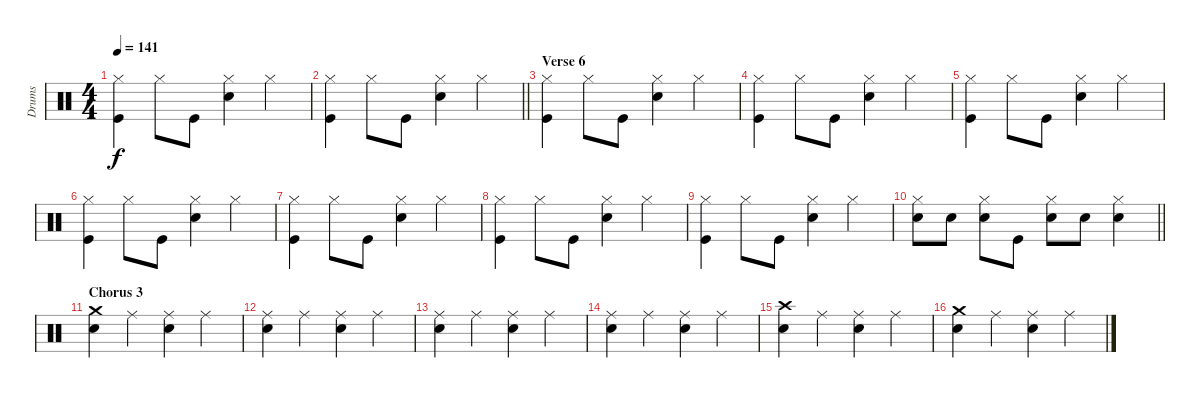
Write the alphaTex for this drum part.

\track ("Drums" "Drums") {instrument percussion}
\staff {score}
\articulation defaults
\ts (4 4)
\tempo 141
\clef neutral
\ks c
("Hi-Hat (closed)" "Kick (hit)").4{dy f} "Hi-Hat (closed)".8 "Kick (hit)".8 ("Hi-Hat (closed)" "Snare (hit) 2").4 "Hi-Hat (closed)".4 |
\barLineRight lightlight
("Hi-Hat (closed)" "Kick (hit)").4 "Hi-Hat (closed)".8 "Kick (hit)".8 ("Hi-Hat (closed)" "Snare (hit) 2").4 "Hi-Hat (closed)".4 |
\section ("" "Verse 6")
("Hi-Hat (closed)" "Kick (hit)").4 "Hi-Hat (closed)".8 "Kick (hit)".8 ("Hi-Hat (closed)" "Snare (hit) 2").4 "Hi-Hat (closed)".4 |
("Hi-Hat (closed)" "Kick (hit)").4 "Hi-Hat (closed)".8 "Kick (hit)".8 ("Hi-Hat (closed)" "Snare (hit) 2").4 "Hi-Hat (closed)".4 |
("Hi-Hat (closed)" "Kick (hit)").4 "Hi-Hat (closed)".8 "Kick (hit)".8 ("Hi-Hat (closed)" "Snare (hit) 2").4 "Hi-Hat (closed)".4 |
("Hi-Hat (closed)" "Kick (hit)").4 "Hi-Hat (closed)".8 "Kick (hit)".8 ("Hi-Hat (closed)" "Snare (hit) 2").4 "Hi-Hat (closed)".4 |
("Hi-Hat (closed)" "Kick (hit)").4 "Hi-Hat (closed)".8 "Kick (hit)".8 ("Hi-Hat (closed)" "Snare (hit) 2").4 "Hi-Hat (closed)".4 |
("Hi-Hat (closed)" "Kick (hit)").4 "Hi-Hat (closed)".8 "Kick (hit)".8 ("Hi-Hat (closed)" "Snare (hit) 2").4 "Hi-Hat (closed)".4 |
("Hi-Hat (closed)" "Kick (hit)").4 "Hi-Hat (closed)".8 "Kick (hit)".8 ("Hi-Hat (closed)" "Snare (hit) 2").4 "Hi-Hat (closed)".4 |
\barLineRight lightlight
("Hi-Hat (closed)" "Snare (hit) 2").8 "Snare (hit) 2".8 ("Hi-Hat (closed)" "Snare (hit) 2").8 "Kick (hit)".8 ("Hi-Hat (closed)" "Snare (hit) 2").8 "Snare (hit) 2".8 ("Hi-Hat (closed)" "Snare (hit) 2").4 |
\section ("" "Chorus 3")
("Crash medium (hit)" "Snare (hit) 2").4 "Ride (middle)".4 ("Ride (middle)" "Snare (hit) 2").4 "Ride (middle)".4 |
("Ride (middle)" "Snare (hit) 2").4 "Ride (middle)".4 ("Ride (middle)" "Snare (hit) 2").4 "Ride (middle)".4 |
("Ride (middle)" "Snare (hit) 2").4 "Ride (middle)".4 ("Ride (middle)" "Snare (hit) 2").4 "Ride (middle)".4 |
("Ride (middle)" "Snare (hit) 2").4 "Ride (middle)".4 ("Ride (middle)" "Snare (hit) 2").4 "Ride (middle)".4 |
("Crash high (hit)" "Snare (hit) 2").4 "Ride (middle)".4 ("Ride (middle)" "Snare (hit) 2").4 "Ride (middle)".4 |
("Crash medium (hit)" "Snare (hit) 2").4 "Ride (middle)".4 ("Ride (middle)" "Snare (hit) 2").4 "Ride (middle)".4
